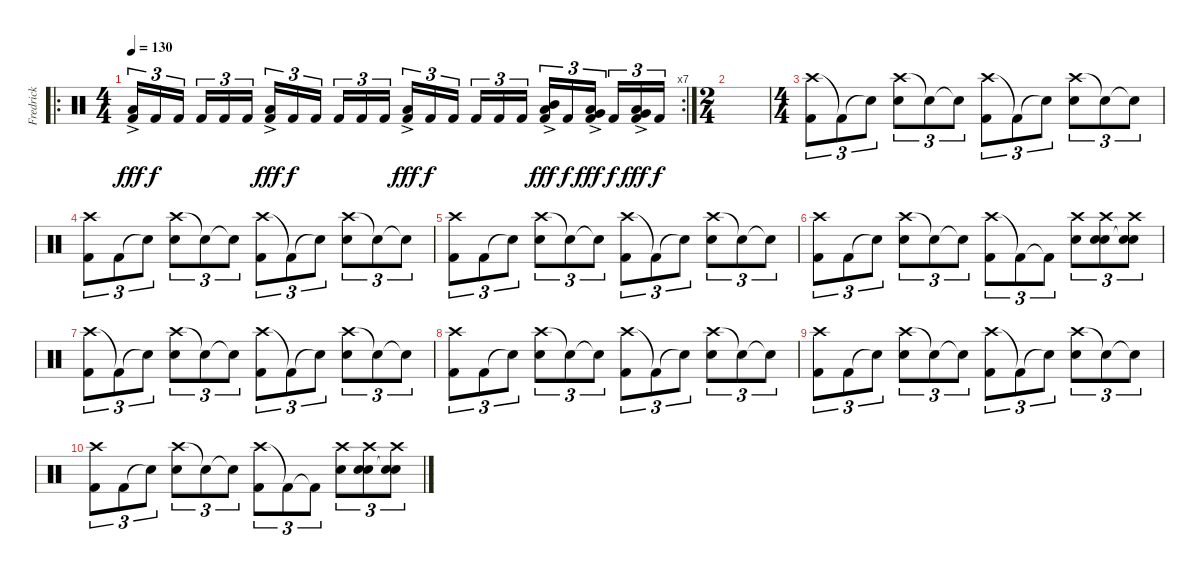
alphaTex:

\track ("Fredrick" "Fredrick") {instrument percussion}
\staff {score}
\articulation defaults
\ro
\rc 7
\ts (4 4)
\tempo 130
\clef neutral
\ks c
("Low Floor Tom (hit)"{ac} "Kick (hit) 2").16{tu (3 2) dy fff} "Kick (hit) 2".16{tu (3 2) dy f} "Kick (hit) 2".16{tu (3 2) beam splitsecondary} "Kick (hit) 2".16{tu (3 2)} "Kick (hit) 2".16{tu (3 2)} "Kick (hit) 2".16{tu (3 2)} ("Low Floor Tom (hit)"{ac} "Kick (hit) 2").16{tu (3 2) dy fff} "Kick (hit) 2".16{tu (3 2) dy f} "Kick (hit) 2".16{tu (3 2) beam splitsecondary} "Kick (hit) 2".16{tu (3 2)} "Kick (hit) 2".16{tu (3 2)} "Kick (hit) 2".16{tu (3 2)} ("Low Floor Tom (hit)"{ac} "Kick (hit) 2").16{tu (3 2) dy fff} "Kick (hit) 2".16{tu (3 2) dy f} "Kick (hit) 2".16{tu (3 2) beam splitsecondary} "Kick (hit) 2".16{tu (3 2)} "Kick (hit) 2".16{tu (3 2)} "Kick (hit) 2".16{tu (3 2)} ("Mid Tom (hit)"{ac} "Low Tom (hit)"{ac} "Kick (hit) 2").16{tu (3 2) dy fff} "Kick (hit) 2".16{tu (3 2) dy f} ("Low Tom (hit)"{ac} "Very Low Tom (hit)"{ac} "Kick (hit) 2").16{tu (3 2) dy fff beam splitsecondary} "Kick (hit) 2".16{tu (3 2) dy f} ("Very Low Tom (hit)"{ac} "Low Floor Tom (hit)"{ac} "Kick (hit) 2").16{tu (3 2) dy fff} "Kick (hit) 2".16{tu (3 2) dy f} |
\ts (2 4)
|
\ts (4 4)
("Crash high (hit)" "Kick (hit) 2").8{tu (3 2)} "Kick (hit) 2"{t}.8{tu (3 2)} "Snare (hit)"{t}.8{tu (3 2)} ("Crash high (hit)" "Electric Snare (hit)").8{tu (3 2)} "Snare (hit)"{t}.8{tu (3 2)} "Snare (hit)"{t}.8{tu (3 2)} ("Crash high (hit)" "Kick (hit) 2").8{tu (3 2)} "Kick (hit) 2"{t}.8{tu (3 2)} "Snare (hit)"{t}.8{tu (3 2)} ("Crash high (hit)" "Electric Snare (hit)").8{tu (3 2)} "Snare (hit)"{t}.8{tu (3 2)} "Snare (hit)"{t}.8{tu (3 2)} |
("Crash high (hit)" "Kick (hit) 2").8{tu (3 2)} "Kick (hit) 2".8{tu (3 2)} "Snare (hit)"{t}.8{tu (3 2)} ("Crash high (hit)" "Electric Snare (hit)").8{tu (3 2)} "Snare (hit)"{t}.8{tu (3 2)} "Snare (hit)"{t}.8{tu (3 2)} ("Crash high (hit)" "Kick (hit) 2").8{tu (3 2)} "Kick (hit) 2"{t}.8{tu (3 2)} "Snare (hit)"{t}.8{tu (3 2)} ("Crash high (hit)" "Electric Snare (hit)").8{tu (3 2)} "Snare (hit)"{t}.8{tu (3 2)} "Snare (hit)"{t}.8{tu (3 2)} |
("Crash high (hit)" "Kick (hit) 2").8{tu (3 2)} "Kick (hit) 2".8{tu (3 2)} "Snare (hit)"{t}.8{tu (3 2)} ("Crash high (hit)" "Electric Snare (hit)").8{tu (3 2)} "Snare (hit)"{t}.8{tu (3 2)} "Snare (hit)"{t}.8{tu (3 2)} ("Crash high (hit)" "Kick (hit) 2").8{tu (3 2)} "Kick (hit) 2"{t}.8{tu (3 2)} "Snare (hit)"{t}.8{tu (3 2)} ("Crash high (hit)" "Electric Snare (hit)").8{tu (3 2)} "Snare (hit)"{t}.8{tu (3 2)} "Snare (hit)"{t}.8{tu (3 2)} |
("Crash high (hit)" "Kick (hit) 2").8{tu (3 2)} "Kick (hit) 2".8{tu (3 2)} "Snare (hit)"{t}.8{tu (3 2)} ("Crash high (hit)" "Electric Snare (hit)").8{tu (3 2)} "Snare (hit)"{t}.8{tu (3 2)} "Snare (hit)"{t}.8{tu (3 2)} ("Crash high (hit)" "Kick (hit) 2").8{tu (3 2)} "Kick (hit) 2"{t}.8{tu (3 2)} "Kick (hit) 2"{t}.8{tu (3 2)} ("Crash high (hit)" "Electric Snare (hit)").8{tu (3 2)} ("Crash high (hit)" "Electric Snare (hit)" "Snare (hit)").8{tu (3 2)} ("Crash high (hit)" "Electric Snare (hit)" "Snare (hit)"{t}).8{tu (3 2)} |
("Crash high (hit)" "Kick (hit) 2").8{tu (3 2)} "Kick (hit) 2"{t}.8{tu (3 2)} "Snare (hit)"{t}.8{tu (3 2)} ("Crash high (hit)" "Electric Snare (hit)").8{tu (3 2)} "Snare (hit)"{t}.8{tu (3 2)} "Snare (hit)"{t}.8{tu (3 2)} ("Crash high (hit)" "Kick (hit) 2").8{tu (3 2)} "Kick (hit) 2"{t}.8{tu (3 2)} "Snare (hit)"{t}.8{tu (3 2)} ("Crash high (hit)" "Electric Snare (hit)").8{tu (3 2)} "Snare (hit)"{t}.8{tu (3 2)} "Snare (hit)"{t}.8{tu (3 2)} |
("Crash high (hit)" "Kick (hit) 2").8{tu (3 2)} "Kick (hit) 2".8{tu (3 2)} "Snare (hit)"{t}.8{tu (3 2)} ("Crash high (hit)" "Electric Snare (hit)").8{tu (3 2)} "Snare (hit)"{t}.8{tu (3 2)} "Snare (hit)"{t}.8{tu (3 2)} ("Crash high (hit)" "Kick (hit) 2").8{tu (3 2)} "Kick (hit) 2"{t}.8{tu (3 2)} "Snare (hit)"{t}.8{tu (3 2)} ("Crash high (hit)" "Electric Snare (hit)").8{tu (3 2)} "Snare (hit)"{t}.8{tu (3 2)} "Snare (hit)"{t}.8{tu (3 2)} |
("Crash high (hit)" "Kick (hit) 2").8{tu (3 2)} "Kick (hit) 2".8{tu (3 2)} "Snare (hit)"{t}.8{tu (3 2)} ("Crash high (hit)" "Electric Snare (hit)").8{tu (3 2)} "Snare (hit)"{t}.8{tu (3 2)} "Snare (hit)"{t}.8{tu (3 2)} ("Crash high (hit)" "Kick (hit) 2").8{tu (3 2)} "Kick (hit) 2"{t}.8{tu (3 2)} "Snare (hit)"{t}.8{tu (3 2)} ("Crash high (hit)" "Electric Snare (hit)").8{tu (3 2)} "Snare (hit)"{t}.8{tu (3 2)} "Snare (hit)"{t}.8{tu (3 2)} |
("Crash high (hit)" "Kick (hit) 2").8{tu (3 2)} "Kick (hit) 2".8{tu (3 2)} "Snare (hit)"{t}.8{tu (3 2)} ("Crash high (hit)" "Electric Snare (hit)").8{tu (3 2)} "Snare (hit)"{t}.8{tu (3 2)} "Snare (hit)"{t}.8{tu (3 2)} ("Crash high (hit)" "Kick (hit) 2").8{tu (3 2)} "Kick (hit) 2"{t}.8{tu (3 2)} "Kick (hit) 2"{t}.8{tu (3 2)} ("Crash high (hit)" "Electric Snare (hit)").8{tu (3 2)} ("Crash high (hit)" "Electric Snare (hit)" "Snare (hit)").8{tu (3 2)} ("Crash high (hit)" "Electric Snare (hit)" "Snare (hit)"{t}).8{tu (3 2)}
